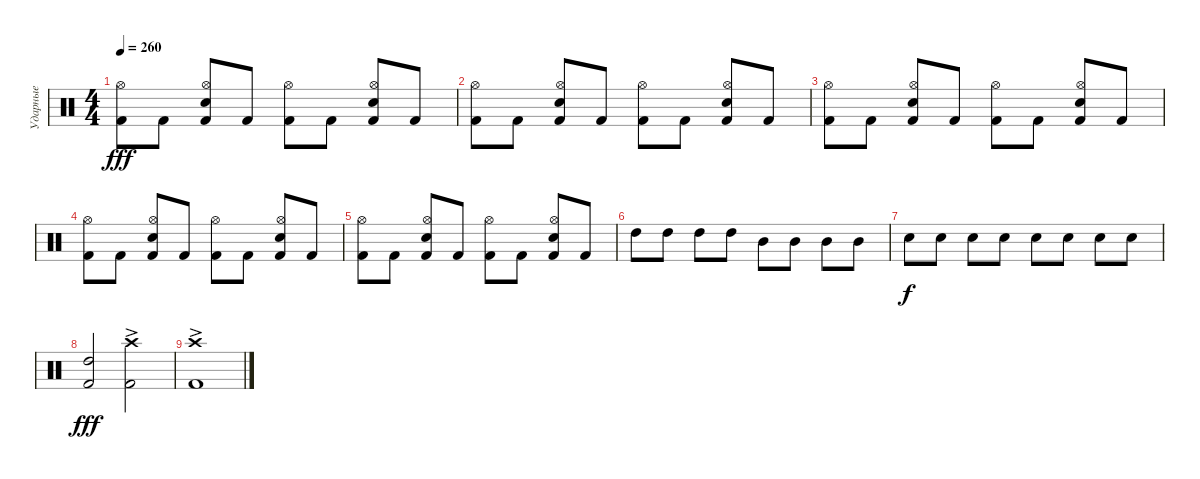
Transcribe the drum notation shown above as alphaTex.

\track ("Ударные" "Ударные") {instrument percussion}
\staff {score}
\articulation defaults
\ts (4 4)
\tempo 260
\clef neutral
\ks c
("Kick (hit) 2" "Hi-Hat (open)").8{dy fff} "Kick (hit) 2".8 ("Kick (hit) 2" "Snare (hit) 2" "Hi-Hat (open)").8 "Kick (hit) 2".8 ("Kick (hit) 2" "Hi-Hat (open)").8 "Kick (hit) 2".8 ("Kick (hit) 2" "Snare (hit) 2" "Hi-Hat (open)").8 "Kick (hit) 2".8 |
("Kick (hit) 2" "Hi-Hat (open)").8 "Kick (hit) 2".8 ("Kick (hit) 2" "Snare (hit) 2" "Hi-Hat (open)").8 "Kick (hit) 2".8 ("Kick (hit) 2" "Hi-Hat (open)").8 "Kick (hit) 2".8 ("Kick (hit) 2" "Snare (hit) 2" "Hi-Hat (open)").8 "Kick (hit) 2".8 |
("Kick (hit) 2" "Hi-Hat (open)").8 "Kick (hit) 2".8 ("Kick (hit) 2" "Snare (hit) 2" "Hi-Hat (open)").8 "Kick (hit) 2".8 ("Kick (hit) 2" "Hi-Hat (open)").8 "Kick (hit) 2".8 ("Kick (hit) 2" "Snare (hit) 2" "Hi-Hat (open)").8 "Kick (hit) 2".8 |
("Kick (hit) 2" "Hi-Hat (open)").8 "Kick (hit) 2".8 ("Kick (hit) 2" "Snare (hit) 2" "Hi-Hat (open)").8 "Kick (hit) 2".8 ("Kick (hit) 2" "Hi-Hat (open)").8 "Kick (hit) 2".8 ("Kick (hit) 2" "Snare (hit) 2" "Hi-Hat (open)").8 "Kick (hit) 2".8 |
("Kick (hit) 2" "Hi-Hat (open)").8 "Kick (hit) 2".8 ("Kick (hit) 2" "Snare (hit) 2" "Hi-Hat (open)").8 "Kick (hit) 2".8 ("Kick (hit) 2" "Hi-Hat (open)").8 "Kick (hit) 2".8 ("Kick (hit) 2" "Snare (hit) 2" "Hi-Hat (open)").8 "Kick (hit) 2".8 |
"High Tom (hit)".8 "High Tom (hit)".8 "High Tom (hit)".8 "High Tom (hit)".8 "Mid Tom (hit)".8 "Mid Tom (hit)".8 "Mid Tom (hit)".8 "Mid Tom (hit)".8 |
"Snare (hit) 2".8{dy f} "Snare (hit) 2".8 "Snare (hit) 2".8 "Snare (hit) 2".8 "Snare (hit) 2".8 "Snare (hit) 2".8 "Snare (hit) 2".8 "Snare (hit) 2".8 |
("Kick (hit) 2" "High Tom (hit)").2{dy fff} ("Kick (hit) 2" "Crash high (hit)"{ac}).2 |
("Kick (hit) 2" "Crash high (hit)"{ac}).1
